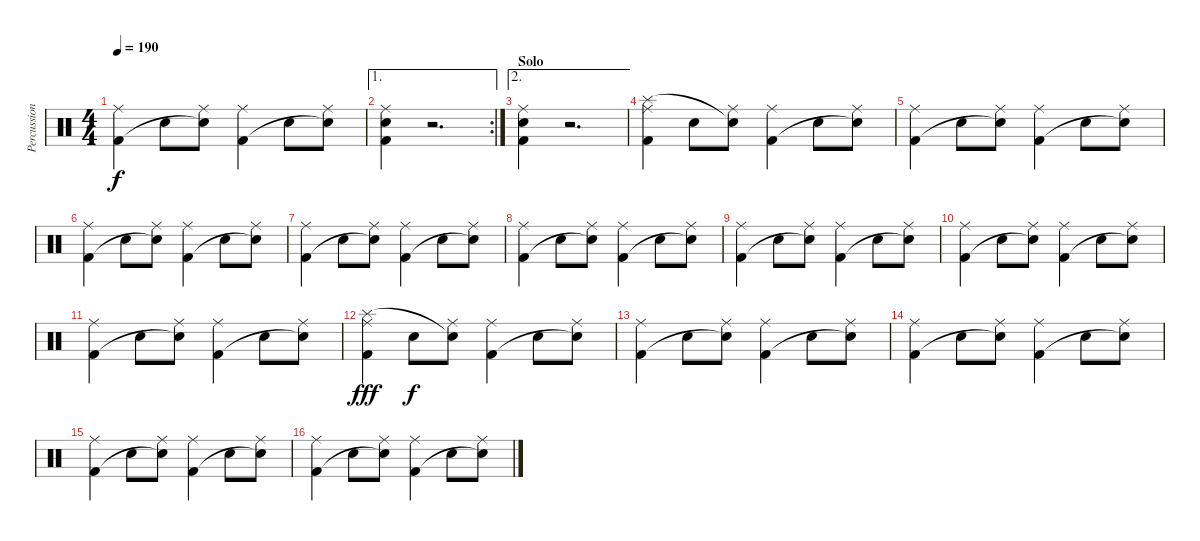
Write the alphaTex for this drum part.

\track ("Percussion" "Percussion") {instrument percussion}
\staff {score}
\articulation defaults
\ts (4 4)
\tempo 190
\clef neutral
\ks c
("Ride (middle)" "Kick (hit) 2").4{dy f} "Electric Snare (hit)".8 ("Ride (middle)" "Electric Snare (hit)"{t}).8 ("Ride (middle)" "Kick (hit) 2").4 "Electric Snare (hit)".8 ("Ride (middle)" "Electric Snare (hit)"{t}).8 |
\ae 1
\rc 2
("Ride (middle)" "Electric Snare (hit)" "Kick (hit) 2").4 r.2{d} |
\ae 2
\section ("" "Solo")
("Ride (middle)" "Electric Snare (hit)" "Kick (hit) 2").4 r.2{d} |
("Ride (middle)" "Splash (hit)" "Kick (hit) 2").4 "Electric Snare (hit)".8 ("Ride (middle)" "Electric Snare (hit)"{t}).8 ("Ride (middle)" "Kick (hit) 2").4 "Electric Snare (hit)".8 ("Ride (middle)" "Electric Snare (hit)"{t}).8 |
("Ride (middle)" "Kick (hit) 2").4 "Electric Snare (hit)".8 ("Ride (middle)" "Electric Snare (hit)"{t}).8 ("Ride (middle)" "Kick (hit) 2").4 "Electric Snare (hit)".8 ("Ride (middle)" "Electric Snare (hit)"{t}).8 |
("Ride (middle)" "Kick (hit) 2").4 "Electric Snare (hit)".8 ("Ride (middle)" "Electric Snare (hit)"{t}).8 ("Ride (middle)" "Kick (hit) 2").4 "Electric Snare (hit)".8 ("Ride (middle)" "Electric Snare (hit)"{t}).8 |
("Ride (middle)" "Kick (hit) 2").4 "Electric Snare (hit)".8 ("Ride (middle)" "Electric Snare (hit)"{t}).8 ("Ride (middle)" "Kick (hit) 2").4 "Electric Snare (hit)".8 ("Ride (middle)" "Electric Snare (hit)"{t}).8 |
("Ride (middle)" "Kick (hit) 2").4 "Electric Snare (hit)".8 ("Ride (middle)" "Electric Snare (hit)"{t}).8 ("Ride (middle)" "Kick (hit) 2").4 "Electric Snare (hit)".8 ("Ride (middle)" "Electric Snare (hit)"{t}).8 |
("Ride (middle)" "Kick (hit) 2").4 "Electric Snare (hit)".8 ("Ride (middle)" "Electric Snare (hit)"{t}).8 ("Ride (middle)" "Kick (hit) 2").4 "Electric Snare (hit)".8 ("Ride (middle)" "Electric Snare (hit)"{t}).8 |
("Ride (middle)" "Kick (hit) 2").4 "Electric Snare (hit)".8 ("Ride (middle)" "Electric Snare (hit)"{t}).8 ("Ride (middle)" "Kick (hit) 2").4 "Electric Snare (hit)".8 ("Ride (middle)" "Electric Snare (hit)"{t}).8 |
("Ride (middle)" "Kick (hit) 2").4 "Electric Snare (hit)".8 ("Ride (middle)" "Electric Snare (hit)"{t}).8 ("Ride (middle)" "Kick (hit) 2").4 "Electric Snare (hit)".8 ("Ride (middle)" "Electric Snare (hit)"{t}).8 |
("Ride (middle)" "Splash (hit)" "Kick (hit) 2").4{dy fff} "Electric Snare (hit)".8{dy f} ("Ride (middle)" "Electric Snare (hit)"{t}).8 ("Ride (middle)" "Kick (hit) 2").4 "Electric Snare (hit)".8 ("Ride (middle)" "Electric Snare (hit)"{t}).8 |
("Ride (middle)" "Kick (hit) 2").4 "Electric Snare (hit)".8 ("Ride (middle)" "Electric Snare (hit)"{t}).8 ("Ride (middle)" "Kick (hit) 2").4 "Electric Snare (hit)".8 ("Ride (middle)" "Electric Snare (hit)"{t}).8 |
("Ride (middle)" "Kick (hit) 2").4 "Electric Snare (hit)".8 ("Ride (middle)" "Electric Snare (hit)"{t}).8 ("Ride (middle)" "Kick (hit) 2").4 "Electric Snare (hit)".8 ("Ride (middle)" "Electric Snare (hit)"{t}).8 |
("Ride (middle)" "Kick (hit) 2").4 "Electric Snare (hit)".8 ("Ride (middle)" "Electric Snare (hit)"{t}).8 ("Ride (middle)" "Kick (hit) 2").4 "Electric Snare (hit)".8 ("Ride (middle)" "Electric Snare (hit)"{t}).8 |
("Ride (middle)" "Kick (hit) 2").4 "Electric Snare (hit)".8 ("Ride (middle)" "Electric Snare (hit)"{t}).8 ("Ride (middle)" "Kick (hit) 2").4 "Electric Snare (hit)".8 ("Ride (middle)" "Electric Snare (hit)"{t}).8
